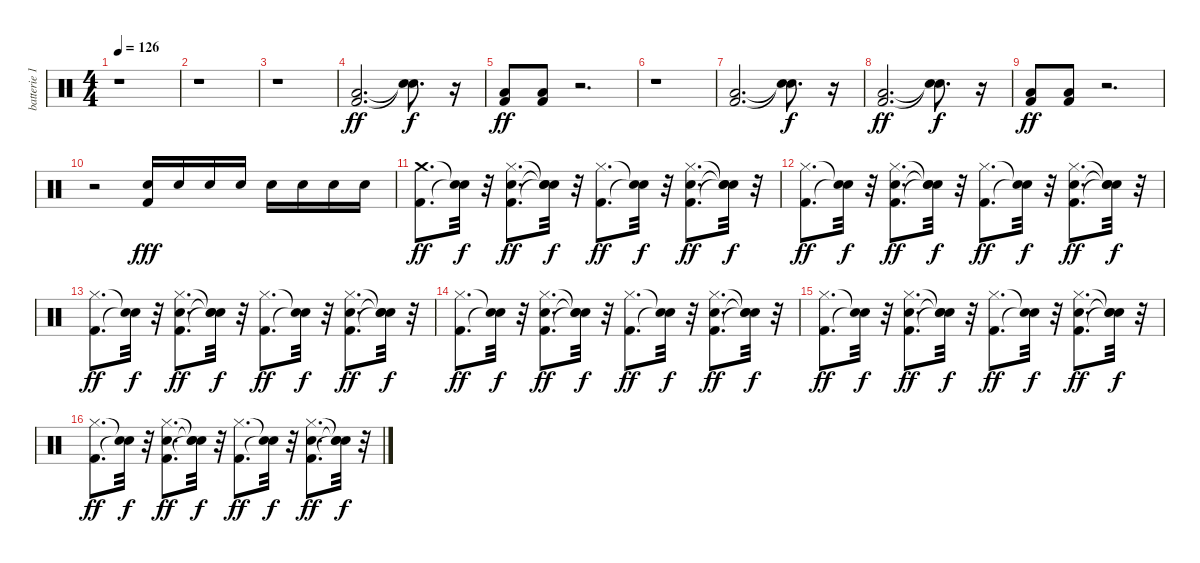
\track ("batterie 1" "batterie 1") {instrument percussion}
\staff {score}
\articulation defaults
\ts (4 4)
\tempo 126
\clef neutral
\ks c
r.1{dy ff} |
r.1 |
r.1 |
("Kick (hit) 2" "Low Floor Tom (hit)").2{d} ("Snare (hit)"{t} "Snare (hit)"{t}).8{d dy f} r.16 |
("Kick (hit) 2" "Low Floor Tom (hit)").8{dy ff} ("Kick (hit) 2" "Low Floor Tom (hit)").8 r.2{d} |
r.1 |
("Kick (hit) 2" "Low Floor Tom (hit)").2{d} ("Snare (hit)"{t} "Snare (hit)"{t}).8{d dy f} r.16 |
("Kick (hit) 2" "Low Floor Tom (hit)").2{d dy ff} ("Snare (hit)"{t} "Snare (hit)"{t}).8{d dy f} r.16 |
("Kick (hit) 2" "Low Floor Tom (hit)").8{dy ff} ("Kick (hit) 2" "Low Floor Tom (hit)").8 r.2{d} |
r.2 ("Kick (hit) 2" "Snare (hit) 2").16{dy fff} "Snare (hit) 2".16 "Snare (hit) 2".16 "Snare (hit) 2".16 "Snare (hit) 2".16 "Snare (hit) 2".16 "Snare (hit) 2".16 "Snare (hit) 2".16 |
("Kick (hit) 2" "Crash medium (hit)").8{d dy ff} ("Snare (hit)"{t} "Snare (hit)"{t}).32{dy f} r.32 ("Kick (hit) 2" "Snare (hit) 2" "Hi-Hat (closed)").8{d dy ff} ("Snare (hit)"{t} "Snare (hit)"{t} "Snare (hit)"{t}).32{dy f} r.32 ("Kick (hit) 2" "Hi-Hat (closed)").8{d dy ff} ("Snare (hit)"{t} "Snare (hit)"{t}).32{dy f} r.32 ("Kick (hit) 2" "Snare (hit) 2" "Hi-Hat (closed)").8{d dy ff} ("Snare (hit)"{t} "Snare (hit)"{t} "Snare (hit)"{t}).32{dy f} r.32 |
("Kick (hit) 2" "Hi-Hat (closed)").8{d dy ff} ("Snare (hit)"{t} "Snare (hit)"{t}).32{dy f} r.32 ("Kick (hit) 2" "Snare (hit) 2" "Hi-Hat (closed)").8{d dy ff} ("Snare (hit)"{t} "Snare (hit)"{t} "Snare (hit)"{t}).32{dy f} r.32 ("Kick (hit) 2" "Hi-Hat (closed)").8{d dy ff} ("Snare (hit)"{t} "Snare (hit)"{t}).32{dy f} r.32 ("Kick (hit) 2" "Snare (hit) 2" "Hi-Hat (closed)").8{d dy ff} ("Snare (hit)"{t} "Snare (hit)"{t} "Snare (hit)"{t}).32{dy f} r.32 |
("Kick (hit) 2" "Hi-Hat (closed)").8{d dy ff} ("Snare (hit)"{t} "Snare (hit)"{t}).32{dy f} r.32 ("Kick (hit) 2" "Snare (hit) 2" "Hi-Hat (closed)").8{d dy ff} ("Snare (hit)"{t} "Snare (hit)"{t} "Snare (hit)"{t}).32{dy f} r.32 ("Kick (hit) 2" "Hi-Hat (closed)").8{d dy ff} ("Snare (hit)"{t} "Snare (hit)"{t}).32{dy f} r.32 ("Kick (hit) 2" "Snare (hit) 2" "Hi-Hat (closed)").8{d dy ff} ("Snare (hit)"{t} "Snare (hit)"{t} "Snare (hit)"{t}).32{dy f} r.32 |
("Kick (hit) 2" "Hi-Hat (closed)").8{d dy ff} ("Snare (hit)"{t} "Snare (hit)"{t}).32{dy f} r.32 ("Kick (hit) 2" "Snare (hit) 2" "Hi-Hat (closed)").8{d dy ff} ("Snare (hit)"{t} "Snare (hit)"{t} "Snare (hit)"{t}).32{dy f} r.32 ("Kick (hit) 2" "Hi-Hat (closed)").8{d dy ff} ("Snare (hit)"{t} "Snare (hit)"{t}).32{dy f} r.32 ("Kick (hit) 2" "Snare (hit) 2" "Hi-Hat (closed)").8{d dy ff} ("Snare (hit)"{t} "Snare (hit)"{t} "Snare (hit)"{t}).32{dy f} r.32 |
("Kick (hit) 2" "Hi-Hat (closed)").8{d dy ff} ("Snare (hit)"{t} "Snare (hit)"{t}).32{dy f} r.32 ("Kick (hit) 2" "Snare (hit) 2" "Hi-Hat (closed)").8{d dy ff} ("Snare (hit)"{t} "Snare (hit)"{t} "Snare (hit)"{t}).32{dy f} r.32 ("Kick (hit) 2" "Hi-Hat (closed)").8{d dy ff} ("Snare (hit)"{t} "Snare (hit)"{t}).32{dy f} r.32 ("Kick (hit) 2" "Snare (hit) 2" "Hi-Hat (closed)").8{d dy ff} ("Snare (hit)"{t} "Snare (hit)"{t} "Snare (hit)"{t}).32{dy f} r.32 |
("Kick (hit) 2" "Hi-Hat (closed)").8{d dy ff} ("Snare (hit)"{t} "Snare (hit)"{t}).32{dy f} r.32 ("Kick (hit) 2" "Snare (hit) 2" "Hi-Hat (closed)").8{d dy ff} ("Snare (hit)"{t} "Snare (hit)"{t} "Snare (hit)"{t}).32{dy f} r.32 ("Kick (hit) 2" "Hi-Hat (closed)").8{d dy ff} ("Snare (hit)"{t} "Snare (hit)"{t}).32{dy f} r.32 ("Kick (hit) 2" "Snare (hit) 2" "Hi-Hat (closed)").8{d dy ff} ("Snare (hit)"{t} "Snare (hit)"{t} "Snare (hit)"{t}).32{dy f} r.32
